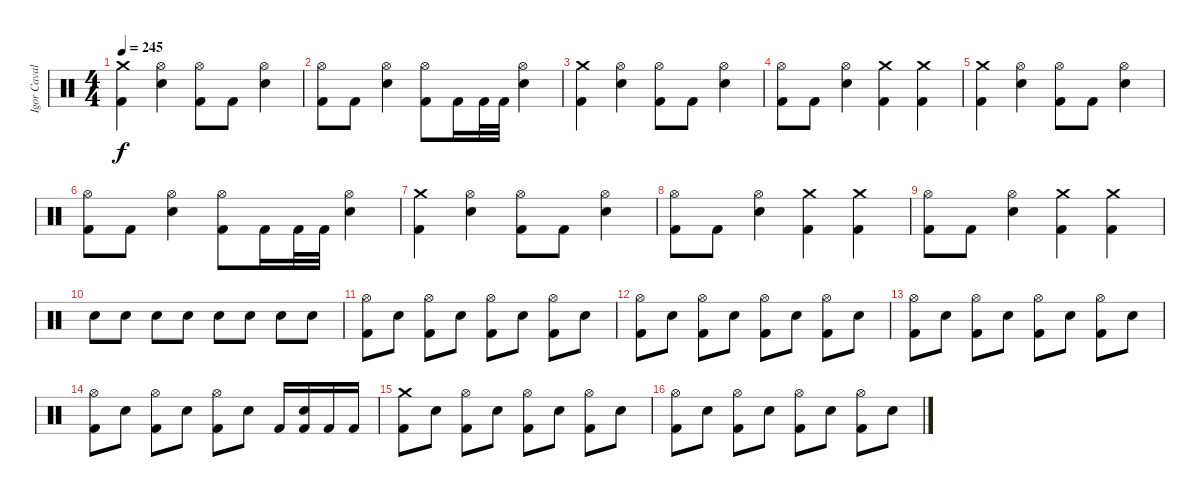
\track ("Igor Cavalera" "Igor Caval") {instrument percussion}
\staff {score}
\articulation defaults
\ts (4 4)
\tempo 245
\clef neutral
\ks c
("Kick (hit) 2" "Crash medium (hit)").4{dy f} ("Hi-Hat (open)" "Electric Snare (hit)").4 ("Hi-Hat (open)" "Kick (hit) 2").8 "Kick (hit) 2".8 ("Hi-Hat (open)" "Electric Snare (hit)").4 |
("Hi-Hat (open)" "Kick (hit) 2").8 "Kick (hit) 2".8 ("Hi-Hat (open)" "Electric Snare (hit)").4 ("Hi-Hat (open)" "Kick (hit) 2").8 "Kick (hit) 2".16 "Kick (hit) 2".32 "Kick (hit) 2".32 ("Hi-Hat (open)" "Electric Snare (hit)").4 |
("Kick (hit) 2" "Crash medium (hit)").4 ("Hi-Hat (open)" "Electric Snare (hit)").4 ("Hi-Hat (open)" "Kick (hit) 2").8 "Kick (hit) 2".8 ("Hi-Hat (open)" "Electric Snare (hit)").4 |
("Hi-Hat (open)" "Kick (hit) 2").8 "Kick (hit) 2".8 ("Hi-Hat (open)" "Electric Snare (hit)").4 ("Kick (hit) 2" "Crash medium (hit)").4 ("Kick (hit) 2" "Crash medium (hit)").4 |
("Kick (hit) 2" "Crash medium (hit)").4 ("Hi-Hat (open)" "Electric Snare (hit)").4 ("Hi-Hat (open)" "Kick (hit) 2").8 "Kick (hit) 2".8 ("Hi-Hat (open)" "Electric Snare (hit)").4 |
("Hi-Hat (open)" "Kick (hit) 2").8 "Kick (hit) 2".8 ("Hi-Hat (open)" "Electric Snare (hit)").4 ("Hi-Hat (open)" "Kick (hit) 2").8 "Kick (hit) 2".16 "Kick (hit) 2".32 "Kick (hit) 2".32 ("Hi-Hat (open)" "Electric Snare (hit)").4 |
("Kick (hit) 2" "Crash medium (hit)").4 ("Hi-Hat (open)" "Electric Snare (hit)").4 ("Hi-Hat (open)" "Kick (hit) 2").8 "Kick (hit) 2".8 ("Hi-Hat (open)" "Electric Snare (hit)").4 |
("Hi-Hat (open)" "Kick (hit) 2").8 "Kick (hit) 2".8 ("Hi-Hat (open)" "Electric Snare (hit)").4 ("Kick (hit) 2" "Crash medium (hit)").4 ("Kick (hit) 2" "Crash medium (hit)").4 |
("Hi-Hat (open)" "Kick (hit) 2").8 "Kick (hit) 2".8 ("Hi-Hat (open)" "Electric Snare (hit)").4 ("Kick (hit) 2" "Crash medium (hit)").4 ("Kick (hit) 2" "Crash medium (hit)").4 |
"Electric Snare (hit)".8 "Electric Snare (hit)".8 "Electric Snare (hit)".8 "Electric Snare (hit)".8 "Electric Snare (hit)".8 "Electric Snare (hit)".8 "Electric Snare (hit)".8 "Electric Snare (hit)".8 |
("Hi-Hat (open)" "Kick (hit) 2").8 "Electric Snare (hit)".8 ("Hi-Hat (open)" "Kick (hit) 2").8 "Electric Snare (hit)".8 ("Hi-Hat (open)" "Kick (hit) 2").8 "Electric Snare (hit)".8 ("Hi-Hat (open)" "Kick (hit) 2").8 "Electric Snare (hit)".8 |
("Hi-Hat (open)" "Kick (hit) 2").8 "Electric Snare (hit)".8 ("Hi-Hat (open)" "Kick (hit) 2").8 "Electric Snare (hit)".8 ("Hi-Hat (open)" "Kick (hit) 2").8 "Electric Snare (hit)".8 ("Hi-Hat (open)" "Kick (hit) 2").8 "Electric Snare (hit)".8 |
("Hi-Hat (open)" "Kick (hit) 2").8 "Electric Snare (hit)".8 ("Hi-Hat (open)" "Kick (hit) 2").8 "Electric Snare (hit)".8 ("Hi-Hat (open)" "Kick (hit) 2").8 "Electric Snare (hit)".8 ("Hi-Hat (open)" "Kick (hit) 2").8 "Electric Snare (hit)".8 |
("Hi-Hat (open)" "Kick (hit) 2").8 "Electric Snare (hit)".8 ("Hi-Hat (open)" "Kick (hit) 2").8 "Electric Snare (hit)".8 ("Hi-Hat (open)" "Kick (hit) 2").8 "Electric Snare (hit)".8 "Kick (hit) 2".16 ("Kick (hit) 2" "Electric Snare (hit)").16 "Kick (hit) 2".16 "Kick (hit) 2".16 |
("Crash medium (hit)" "Kick (hit) 2").8 "Electric Snare (hit)".8 ("Hi-Hat (open)" "Kick (hit) 2").8 "Electric Snare (hit)".8 ("Hi-Hat (open)" "Kick (hit) 2").8 "Electric Snare (hit)".8 ("Hi-Hat (open)" "Kick (hit) 2").8 "Electric Snare (hit)".8 |
("Hi-Hat (open)" "Kick (hit) 2").8 "Electric Snare (hit)".8 ("Hi-Hat (open)" "Kick (hit) 2").8 "Electric Snare (hit)".8 ("Hi-Hat (open)" "Kick (hit) 2").8 "Electric Snare (hit)".8 ("Hi-Hat (open)" "Kick (hit) 2").8 "Electric Snare (hit)".8
